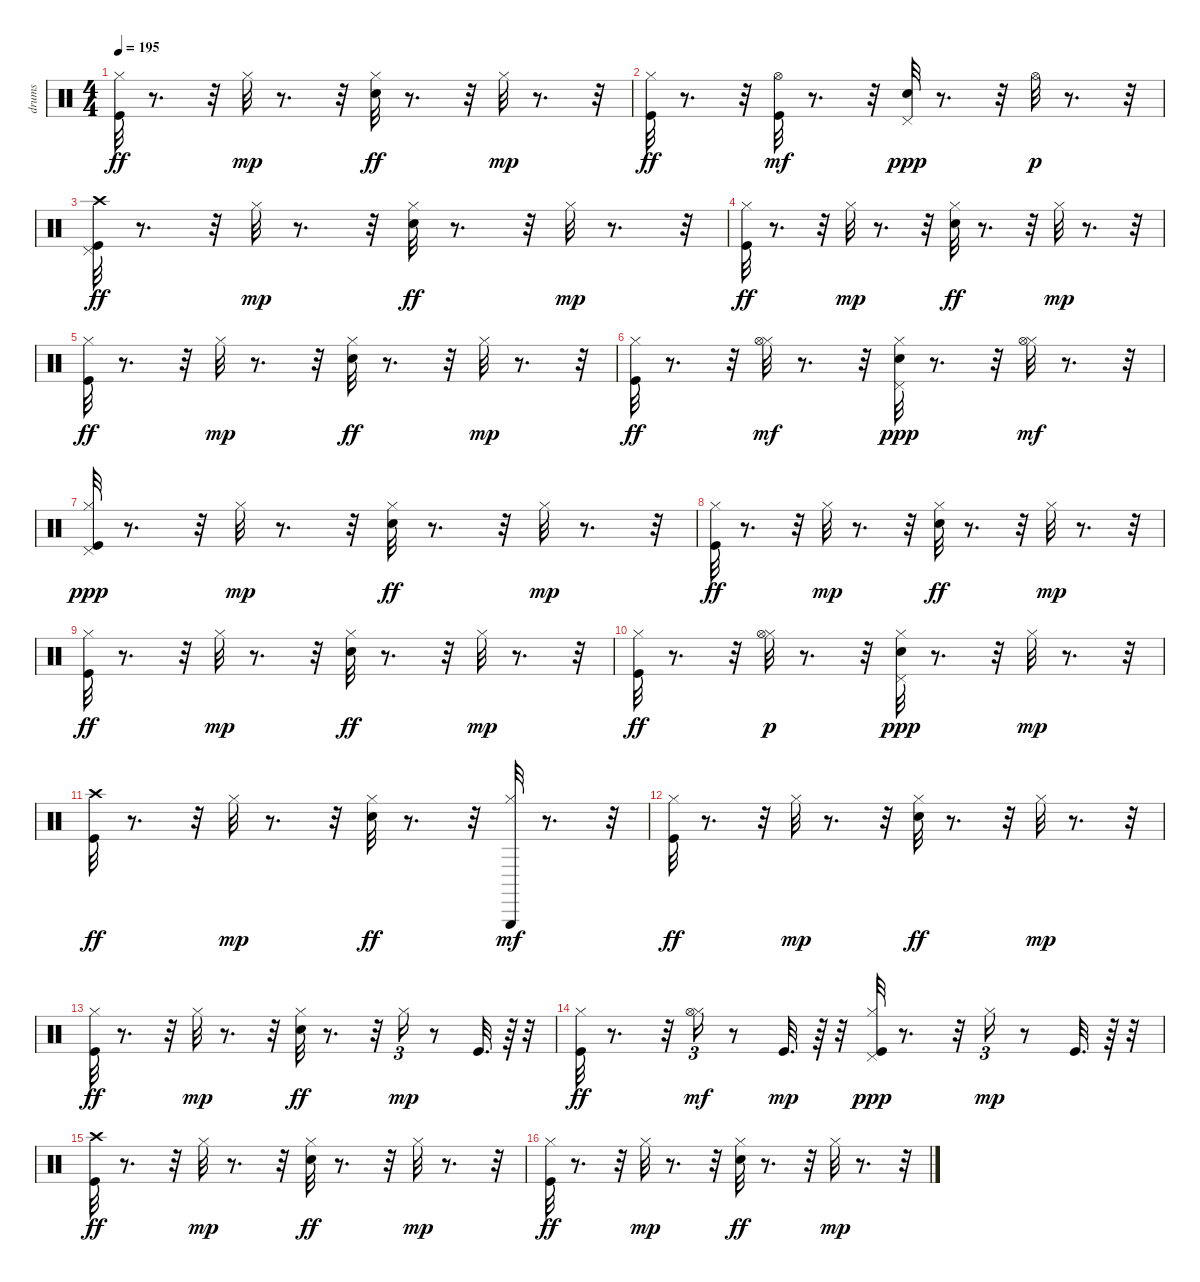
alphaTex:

\track ("drums" "drums") {instrument percussion}
\staff {score}
\articulation defaults
\ts (4 4)
\tempo 195
\clef neutral
\ks c
("Kick (hit)" "Hi-Hat (closed)").32{dy ff} r.8{d} r.32 "Hi-Hat (closed)".32{dy mp} r.8{d} r.32 ("Hi-Hat (closed)" "Snare (hit) 2").32{dy ff} r.8{d} r.32 "Hi-Hat (closed)".32{dy mp} r.8{d} r.32 |
("Kick (hit)" "Hi-Hat (closed)").32{dy ff} r.8{d} r.32 ("Kick (hit)" "Hi-Hat (open)").32{dy mf} r.8{d} r.32 ("Snare (hit) 2" "Pedal Hi-Hat (hit)").32{dy ppp} r.8{d} r.32 "Hi-Hat (open)".32{dy p} r.8{d} r.32 |
("Pedal Hi-Hat (hit)" "Crash high (hit)" "Kick (hit)").32{dy ff} r.8{d} r.32 "Hi-Hat (closed)".32{dy mp} r.8{d} r.32 ("Hi-Hat (closed)" "Snare (hit) 2").32{dy ff} r.8{d} r.32 "Hi-Hat (closed)".32{dy mp} r.8{d} r.32 |
("Hi-Hat (closed)" "Kick (hit)").32{dy ff} r.8{d} r.32 "Hi-Hat (closed)".32{dy mp} r.8{d} r.32 ("Snare (hit) 2" "Hi-Hat (closed)").32{dy ff} r.8{d} r.32 "Hi-Hat (closed)".32{dy mp} r.8{d} r.32 |
("Hi-Hat (closed)" "Kick (hit)").32{dy ff} r.8{d} r.32 "Hi-Hat (closed)".32{dy mp} r.8{d} r.32 ("Snare (hit) 2" "Hi-Hat (closed)").32{dy ff} r.8{d} r.32 "Hi-Hat (closed)".32{dy mp} r.8{d} r.32 |
("Kick (hit)" "Hi-Hat (closed)").32{dy ff} r.8{d} r.32 ("Hi-Hat (closed)" "Hi-Hat (open)").32{dy mf} r.8{d} r.32 ("Snare (hit) 2" "Hi-Hat (closed)" "Pedal Hi-Hat (hit)").32{dy ppp} r.8{d} r.32 ("Hi-Hat (closed)" "Hi-Hat (open)").32{dy mf} r.8{d} r.32 |
("Hi-Hat (closed)" "Kick (hit)" "Pedal Hi-Hat (hit)").32{dy ppp} r.8{d} r.32 "Hi-Hat (closed)".32{dy mp} r.8{d} r.32 ("Hi-Hat (closed)" "Snare (hit) 2").32{dy ff} r.8{d} r.32 "Hi-Hat (closed)".32{dy mp} r.8{d} r.32 |
("Hi-Hat (closed)" "Kick (hit)").32{dy ff} r.8{d} r.32 "Hi-Hat (closed)".32{dy mp} r.8{d} r.32 ("Snare (hit) 2" "Hi-Hat (closed)").32{dy ff} r.8{d} r.32 "Hi-Hat (closed)".32{dy mp} r.8{d} r.32 |
("Kick (hit)" "Hi-Hat (closed)").32{dy ff} r.8{d} r.32 "Hi-Hat (closed)".32{dy mp} r.8{d} r.32 ("Snare (hit) 2" "Hi-Hat (closed)").32{dy ff} r.8{d} r.32 "Hi-Hat (closed)".32{dy mp} r.8{d} r.32 |
("Kick (hit)" "Hi-Hat (closed)").32{dy ff} r.8{d} r.32 ("Hi-Hat (closed)" "Hi-Hat (open)").32{dy p} r.8{d} r.32 ("Hi-Hat (closed)" "Snare (hit) 2" "Pedal Hi-Hat (hit)").32{dy ppp} r.8{d} r.32 "Hi-Hat (closed)".32{dy mp} r.8{d} r.32 |
("Crash high (hit)" "Kick (hit)").32{dy ff} r.8{d} r.32 "Hi-Hat (closed)".32{dy mp} r.8{d} r.32 ("Hi-Hat (closed)" "Snare (hit) 2").32{dy ff} r.8{d} r.32 ("Hi-Hat (closed)" "Triangle (hit)").32{dy mf} r.8{d} r.32 |
("Kick (hit)" "Hi-Hat (closed)").32{dy ff} r.8{d} r.32 "Hi-Hat (closed)".32{dy mp} r.8{d} r.32 ("Hi-Hat (closed)" "Snare (hit) 2").32{dy ff} r.8{d} r.32 "Hi-Hat (closed)".32{dy mp} r.8{d} r.32 |
("Kick (hit)" "Hi-Hat (closed)").32{dy ff} r.8{d} r.32 "Hi-Hat (closed)".32{dy mp} r.8{d} r.32 ("Hi-Hat (closed)" "Snare (hit) 2").32{dy ff} r.8{d} r.32 "Hi-Hat (closed)".16{tu (3 2) dy mp} r.8 "Kick (hit)".32{d} r.64 r.32 |
("Kick (hit)" "Hi-Hat (closed)").32{dy ff} r.8{d} r.32 ("Hi-Hat (closed)" "Hi-Hat (open)").16{tu (3 2) dy mf} r.8 "Kick (hit)".32{d dy mp} r.64 r.32 ("Hi-Hat (closed)" "Kick (hit)" "Pedal Hi-Hat (hit)").32{dy ppp} r.8{d} r.32 "Hi-Hat (closed)".16{tu (3 2) dy mp} r.8 "Kick (hit)".32{d} r.64 r.32 |
("Crash high (hit)" "Kick (hit)").32{dy ff} r.8{d} r.32 "Hi-Hat (closed)".32{dy mp} r.8{d} r.32 ("Snare (hit) 2" "Hi-Hat (closed)").32{dy ff} r.8{d} r.32 "Hi-Hat (closed)".32{dy mp} r.8{d} r.32 |
("Hi-Hat (closed)" "Kick (hit)").32{dy ff} r.8{d} r.32 "Hi-Hat (closed)".32{dy mp} r.8{d} r.32 ("Hi-Hat (closed)" "Snare (hit) 2").32{dy ff} r.8{d} r.32 "Hi-Hat (closed)".32{dy mp} r.8{d} r.32
